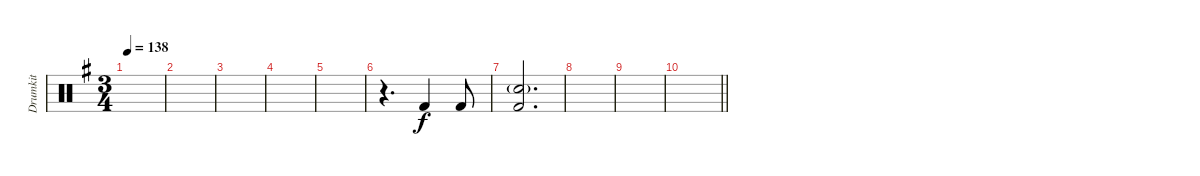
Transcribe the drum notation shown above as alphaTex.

\track ("Drumkit" "Drumkit") {instrument percussion}
\staff {score}
\articulation defaults
\ts (3 4)
\tempo 138
\clef neutral
\ks eminor
|
|
|
|
|
r.4{d} "Kick (hit) 2".4 "Kick (hit) 2".8 |
("Kick (hit) 2" "Snare (hit) 2"{g}).2{d} |
|
|
\barLineRight lightlight
